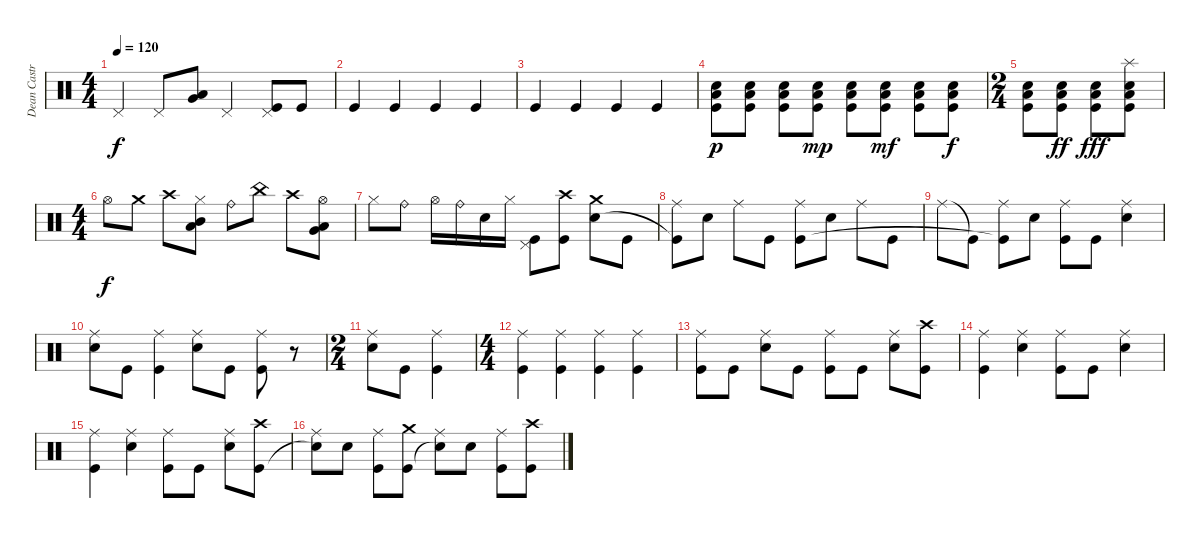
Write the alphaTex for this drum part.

\track ("Dean Castronova" "Dean Castr") {instrument percussion}
\staff {score}
\articulation defaults
\ts (4 4)
\tempo 120
\clef neutral
\ks c "Pedal Hi-Hat (hit)".4{dy f} "Pedal Hi-Hat (hit)".8
("Very Low Tom (hit)" "Low Floor Tom (hit)").8 "Pedal Hi-Hat (hit)".4 ("Pedal Hi-Hat (hit)" "Kick (hit)").8 "Kick (hit)".8 |
"Kick (hit)".4 "Kick (hit)".4 "Kick (hit)".4 "Kick (hit)".4 |
"Kick (hit)".4 "Kick (hit)".4 "Kick (hit)".4 "Kick (hit)".4 |
("Electric Snare (hit)" "Low Floor Tom (hit)" "Kick (hit)").8{dy p} ("Electric Snare (hit)" "Low Floor Tom (hit)" "Kick (hit)").8 ("Electric Snare (hit)" "Low Floor Tom (hit)" "Kick (hit)").8 ("Electric Snare (hit)" "Low Floor Tom (hit)" "Kick (hit)").8{dy mp} ("Electric Snare (hit)" "Low Floor Tom (hit)" "Kick (hit)").8 ("Electric Snare (hit)" "Low Floor Tom (hit)" "Kick (hit)").8{dy mf} ("Electric Snare (hit)" "Low Floor Tom (hit)" "Kick (hit)").8 ("Electric Snare (hit)" "Low Floor Tom (hit)" "Kick (hit)").8{dy f} |
\ts (2 4)
("Electric Snare (hit)" "Low Floor Tom (hit)" "Kick (hit)").8 ("Electric Snare (hit)" "Low Floor Tom (hit)" "Kick (hit)").8{dy ff} ("Electric Snare (hit)" "Low Floor Tom (hit)" "Kick (hit)").8{dy fff} ("Splash (hit)" "Electric Snare (hit)" "Low Floor Tom (hit)" "Kick (hit)").8 |
\ts (4 4)
"Hi-Hat (open)".8{dy f} "Crash medium (hit)".8 "Crash high (hit)".8 ("Hi-Hat (closed)" "Mid Tom (hit)" "Low Tom (hit)").8 "Ride (bell)".8 "China (hit)".8 "Crash high (hit)".8 ("Hi-Hat (open)" "Low Tom (hit)" "Very Low Tom (hit)").8 |
"Hi-Hat (closed)".8 "Ride (bell)".8 "Hi-Hat (open)".16 "Ride (bell)".16 "Electric Snare (hit)".16 "Hi-Hat (closed)".16 ("Pedal Hi-Hat (hit)" "Kick (hit)").8 ("Crash high (hit)" "Kick (hit)").8 ("Crash medium (hit)" "Electric Snare (hit)").8 "Kick (hit)".8 |
("Ride (middle)" "Kick (hit)"{t}).8 "Electric Snare (hit)".8 "Ride (middle)".8 "Kick (hit)".8 ("Ride (middle)" "Kick (hit)").8 "Electric Snare (hit)".8 "Ride (middle)".8 "Kick (hit)".8 |
"Ride (middle)".8 "Kick (hit)"{t}.8 ("Ride (middle)" "Kick (hit)"{t}).8 "Electric Snare (hit)".8 ("Ride (middle)" "Kick (hit)").8 "Kick (hit)".8 ("Ride (middle)" "Electric Snare (hit)").4 |
("Ride (middle)" "Electric Snare (hit)").8 "Kick (hit)".8 ("Ride (middle)" "Kick (hit)").4 ("Ride (middle)" "Electric Snare (hit)").8 "Kick (hit)".8 ("Ride (middle)" "Kick (hit)").8 r.8 |
\ts (2 4)
("Ride (middle)" "Electric Snare (hit)").8 "Kick (hit)".8 ("Ride (middle)" "Kick (hit)").4 |
\ts (4 4)
("Ride (middle)" "Kick (hit)").4 ("Ride (middle)" "Kick (hit)").4 ("Ride (middle)" "Kick (hit)").4 ("Ride (middle)" "Kick (hit)").4 |
("Ride (middle)" "Kick (hit)").8 "Kick (hit)".8 ("Ride (middle)" "Electric Snare (hit)").8 "Kick (hit)".8 ("Ride (middle)" "Kick (hit)").8 "Kick (hit)".8 ("Ride (middle)" "Electric Snare (hit)").8 ("Crash high (hit)" "Kick (hit)").8 |
("Ride (middle)" "Kick (hit)").4 ("Ride (middle)" "Electric Snare (hit)").4 ("Ride (middle)" "Kick (hit)").8 "Kick (hit)".8 ("Ride (middle)" "Electric Snare (hit)").4 |
("Ride (middle)" "Kick (hit)").4 ("Ride (middle)" "Electric Snare (hit)").4 ("Ride (middle)" "Kick (hit)").8 "Kick (hit)".8 ("Ride (middle)" "Electric Snare (hit)").8 ("Crash high (hit)" "Kick (hit)").8 |
("Ride (middle)" "Snare (hit)"{t}).8 "Electric Snare (hit)".8 ("Ride (middle)" "Kick (hit)").8 ("Crash medium (hit)" "Kick (hit)").8 ("Ride (middle)" "Snare (hit)"{t}).8 "Electric Snare (hit)".8 ("Ride (middle)" "Kick (hit)").8 ("Crash high (hit)" "Kick (hit)").8
